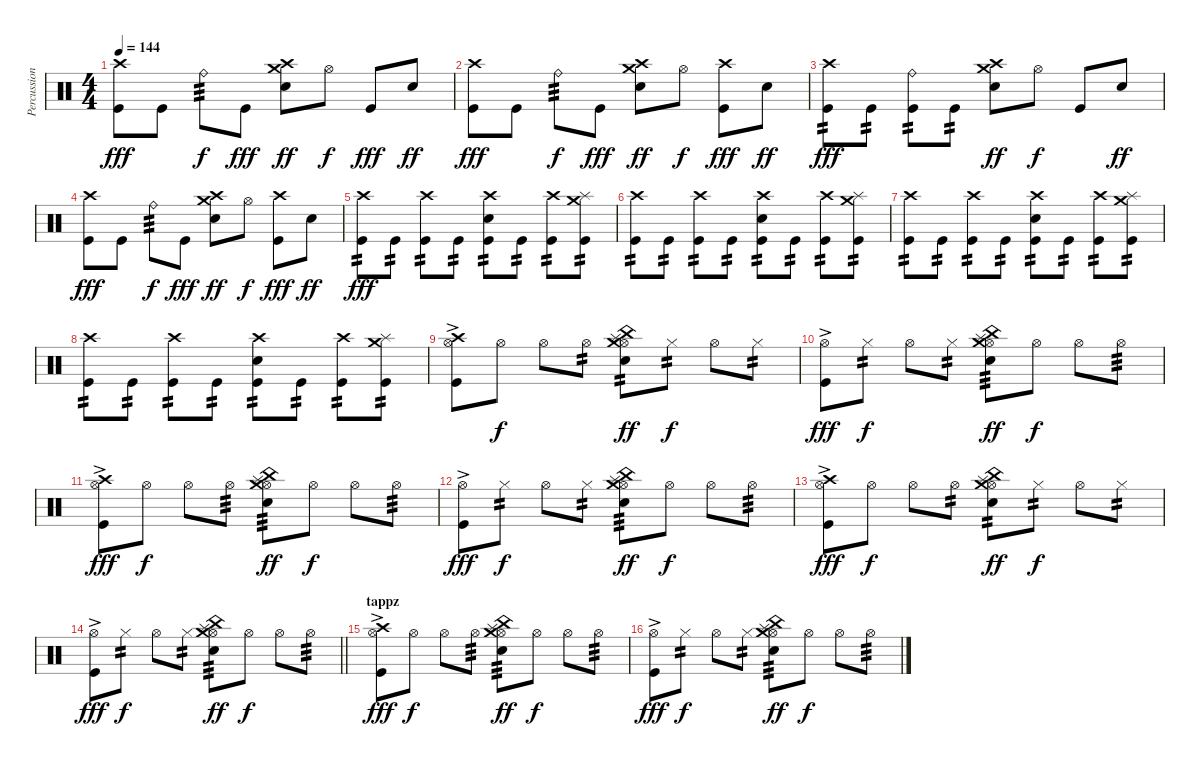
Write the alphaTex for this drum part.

\track ("Percussion" "Percussion") {instrument percussion}
\staff {score}
\articulation defaults
\ts (4 4)
\tempo 144
\clef neutral
\ks c
("Crash high (hit)" "Kick (hit)").8{dy fff} "Kick (hit)".8 "Ride (bell)".8{tp 3 dy f} "Kick (hit)".8{dy fff} ("Crash medium (hit)" "Crash high (hit)" "Electric Snare (hit)").8{dy ff} "Hi-Hat (open)".8{dy f} "Kick (hit)".8{dy fff} "Electric Snare (hit)".8{dy ff} |
("Crash high (hit)" "Kick (hit)").8{dy fff} "Kick (hit)".8 "Ride (bell)".8{tp 3 dy f} "Kick (hit)".8{dy fff} ("Crash medium (hit)" "Crash high (hit)" "Electric Snare (hit)").8{dy ff} "Hi-Hat (open)".8{dy f} ("Crash high (hit)" "Kick (hit)").8{dy fff} "Electric Snare (hit)".8{dy ff} |
("Crash high (hit)" "Kick (hit)").8{tp 2 dy fff} "Kick (hit)".8{tp 2} ("Ride (bell)" "Kick (hit)").8{tp 2} "Kick (hit)".8{tp 2} ("Crash medium (hit)" "Crash high (hit)" "Electric Snare (hit)").8{dy ff} "Hi-Hat (open)".8{dy f} "Kick (hit)".8 "Electric Snare (hit)".8{dy ff} |
("Crash high (hit)" "Kick (hit)").8{dy fff} "Kick (hit)".8 "Ride (bell)".8{tp 3 dy f} "Kick (hit)".8{dy fff} ("Crash medium (hit)" "Crash high (hit)" "Electric Snare (hit)").8{dy ff} "Hi-Hat (open)".8{dy f} ("Crash high (hit)" "Kick (hit)").8{dy fff} "Electric Snare (hit)".8{dy ff} |
("Crash high (hit)" "Kick (hit)").8{tp 2 dy fff} "Kick (hit)".8{tp 2} ("Crash high (hit)" "Kick (hit)").8{tp 2} "Kick (hit)".8{tp 2} ("Crash high (hit)" "Electric Snare (hit)" "Kick (hit)").8{tp 2} "Kick (hit)".8{tp 2} ("Crash high (hit)" "Kick (hit)").8{tp 2} ("Splash (hit)" "Crash medium (hit)" "Kick (hit)").8{tp 2} |
("Crash high (hit)" "Kick (hit)").8{tp 2} "Kick (hit)".8{tp 2} ("Crash high (hit)" "Kick (hit)").8{tp 2} "Kick (hit)".8{tp 2} ("Crash high (hit)" "Electric Snare (hit)" "Kick (hit)").8{tp 2} "Kick (hit)".8{tp 2} ("Crash high (hit)" "Kick (hit)").8{tp 2} ("Splash (hit)" "Crash medium (hit)" "Kick (hit)").8{tp 2} |
("Crash high (hit)" "Kick (hit)").8{tp 2} "Kick (hit)".8{tp 2} ("Crash high (hit)" "Kick (hit)").8{tp 2} "Kick (hit)".8{tp 2} ("Crash high (hit)" "Electric Snare (hit)" "Kick (hit)").8{tp 2} "Kick (hit)".8{tp 2} ("Crash high (hit)" "Kick (hit)").8{tp 2} ("Splash (hit)" "Crash medium (hit)" "Kick (hit)").8{tp 2} |
("Crash high (hit)" "Kick (hit)").8{tp 2} "Kick (hit)".8{tp 2} ("Crash high (hit)" "Kick (hit)").8{tp 2} "Kick (hit)".8{tp 2} ("Crash high (hit)" "Electric Snare (hit)" "Kick (hit)").8{tp 2} "Kick (hit)".8{tp 2} ("Crash high (hit)" "Kick (hit)").8{tp 2} ("Splash (hit)" "Crash medium (hit)" "Kick (hit)").8{tp 2} |
("Hi-Hat (open)" "Crash high (hit)" "Kick (hit)"{ac}).8 "Hi-Hat (open)".8{dy f} "Hi-Hat (open)".8 "Hi-Hat (open)".8{tp 2} ("Hi-Hat (open)" "Electric Snare (hit)" "Splash (hit)" "China (hit)" "Crash medium (hit)").8{tp 2 dy ff} "Hi-Hat (closed)".8{tp 2 dy f} "Hi-Hat (open)".8 "Hi-Hat (closed)".8{tp 2} |
("Hi-Hat (open)" "Kick (hit)"{ac}).8{dy fff} "Hi-Hat (closed)".8{tp 2 dy f} "Hi-Hat (open)".8 "Hi-Hat (closed)".8{tp 2} ("Hi-Hat (open)" "Electric Snare (hit)" "Splash (hit)" "China (hit)" "Crash medium (hit)").8{tp 3 dy ff} "Hi-Hat (open)".8{dy f} "Hi-Hat (open)".8 "Hi-Hat (open)".8{tp 3} |
("Hi-Hat (open)" "Crash high (hit)" "Kick (hit)"{ac}).8{dy fff} "Hi-Hat (open)".8{dy f} "Hi-Hat (open)".8 "Hi-Hat (open)".8{tp 3} ("Hi-Hat (open)" "Electric Snare (hit)" "Splash (hit)" "China (hit)" "Crash medium (hit)").8{tp 3 dy ff} "Hi-Hat (open)".8{dy f} "Hi-Hat (open)".8 "Hi-Hat (open)".8{tp 3} |
("Hi-Hat (open)" "Kick (hit)"{ac}).8{dy fff} "Hi-Hat (closed)".8{tp 2 dy f} "Hi-Hat (open)".8 "Hi-Hat (closed)".8{tp 2} ("Hi-Hat (open)" "Electric Snare (hit)" "Splash (hit)" "China (hit)" "Crash medium (hit)").8{tp 3 dy ff} "Hi-Hat (open)".8{dy f} "Hi-Hat (open)".8 "Hi-Hat (open)".8{tp 3} |
("Hi-Hat (open)" "Crash high (hit)" "Kick (hit)"{ac}).8{dy fff} "Hi-Hat (open)".8{dy f} "Hi-Hat (open)".8 "Hi-Hat (open)".8{tp 2} ("Hi-Hat (open)" "Electric Snare (hit)" "Splash (hit)" "China (hit)" "Crash medium (hit)").8{tp 2 dy ff} "Hi-Hat (closed)".8{tp 2 dy f} "Hi-Hat (open)".8 "Hi-Hat (closed)".8{tp 2} |
\barLineRight lightlight
("Hi-Hat (open)" "Kick (hit)"{ac}).8{dy fff} "Hi-Hat (closed)".8{tp 2 dy f} "Hi-Hat (open)".8 "Hi-Hat (closed)".8{tp 2} ("Hi-Hat (open)" "Electric Snare (hit)" "Splash (hit)" "China (hit)" "Crash medium (hit)").8{tp 3 dy ff} "Hi-Hat (open)".8{dy f} "Hi-Hat (open)".8 "Hi-Hat (open)".8{tp 3} |
\section ("" "tappz")
("Hi-Hat (open)" "Crash high (hit)" "Kick (hit)"{ac}).8{dy fff} "Hi-Hat (open)".8{dy f} "Hi-Hat (open)".8 "Hi-Hat (open)".8{tp 3} ("Hi-Hat (open)" "Electric Snare (hit)" "Splash (hit)" "China (hit)" "Crash medium (hit)").8{tp 3 dy ff} "Hi-Hat (open)".8{dy f} "Hi-Hat (open)".8 "Hi-Hat (open)".8{tp 3} |
("Hi-Hat (open)" "Kick (hit)"{ac}).8{dy fff} "Hi-Hat (closed)".8{tp 2 dy f} "Hi-Hat (open)".8 "Hi-Hat (closed)".8{tp 2} ("Hi-Hat (open)" "Electric Snare (hit)" "Splash (hit)" "China (hit)" "Crash medium (hit)").8{tp 3 dy ff} "Hi-Hat (open)".8{dy f} "Hi-Hat (open)".8 "Hi-Hat (open)".8{tp 3}
